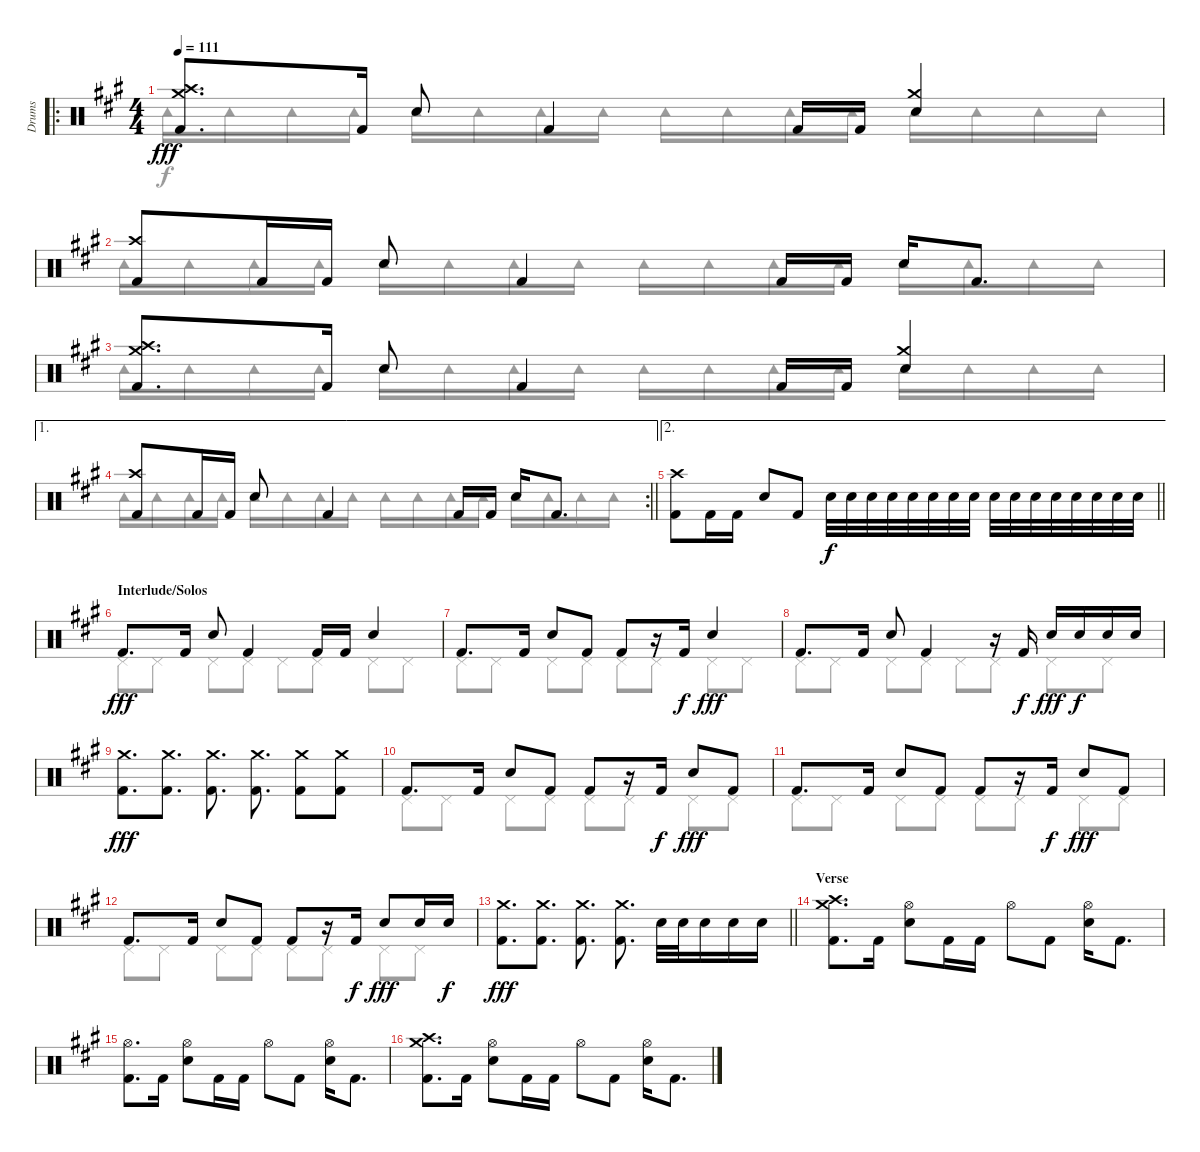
\track ("Drums" "Drums") {instrument percussion}
\staff {score}
\articulation defaults
\voice
\ro
\ts (4 4)
\tempo 111
\clef neutral
\ks a
("Crash medium (hit)" "Crash high (hit)" "Kick (hit) 2").8{d dy fff} "Kick (hit) 2".16 "Snare (hit) 2".8 "Kick (hit) 2".4 "Kick (hit) 2".16 "Kick (hit) 2".16 ("Crash medium (hit)" "Snare (hit) 2").4 |
("Crash high (hit)" "Kick (hit) 2").8 "Kick (hit) 2".16 "Kick (hit) 2".16 "Snare (hit) 2".8 "Kick (hit) 2".4 "Kick (hit) 2".16 "Kick (hit) 2".16 "Snare (hit) 2".16 "Kick (hit) 2".8{d} |
("Crash medium (hit)" "Crash high (hit)" "Kick (hit) 2").8{d} "Kick (hit) 2".16 "Snare (hit) 2".8 "Kick (hit) 2".4 "Kick (hit) 2".16 "Kick (hit) 2".16 ("Crash medium (hit)" "Snare (hit) 2").4 |
\ae 1
\rc 2
\barLineRight lightlight
("Crash high (hit)" "Kick (hit) 2").8 "Kick (hit) 2".16 "Kick (hit) 2".16 "Snare (hit) 2".8 "Kick (hit) 2".4 "Kick (hit) 2".16 "Kick (hit) 2".16 "Snare (hit) 2".16 "Kick (hit) 2".8{d} |
\ae 2
\barLineRight lightlight
("Crash high (hit)" "Kick (hit) 2").8 "Kick (hit) 2".16 "Kick (hit) 2".16 "Snare (hit) 2".8 "Kick (hit) 2".8 "Snare (hit) 2".32{dy f} "Snare (hit) 2".32 "Snare (hit) 2".32 "Snare (hit) 2".32 "Snare (hit) 2".32 "Snare (hit) 2".32 "Snare (hit) 2".32 "Snare (hit) 2".32 "Snare (hit) 2".32 "Snare (hit) 2".32 "Snare (hit) 2".32 "Snare (hit) 2".32 "Snare (hit) 2".32 "Snare (hit) 2".32 "Snare (hit) 2".32 "Snare (hit) 2".32 |
\section ("" "Interlude/Solos")
"Kick (hit) 2".8{d dy fff} "Kick (hit) 2".16 "Snare (hit) 2".8 "Kick (hit) 2".4 "Kick (hit) 2".16 "Kick (hit) 2".16 "Snare (hit) 2".4 |
"Kick (hit) 2".8{d} "Kick (hit) 2".16 "Snare (hit) 2".8 "Kick (hit) 2".8 "Kick (hit) 2".8 r.16 "Kick (hit) 2".16{dy f} "Snare (hit) 2".4{dy fff} |
"Kick (hit) 2".8{d} "Kick (hit) 2".16 "Snare (hit) 2".8 "Kick (hit) 2".4 r.16 "Kick (hit) 2".16{dy f} "Snare (hit) 2".16{dy fff} "Snare (hit) 2".16{dy f} "Snare (hit) 2".16 "Snare (hit) 2".16 |
("Crash medium (hit)" "Kick (hit) 2").8{d dy fff} ("Crash medium (hit)" "Kick (hit) 2").8{d} ("Crash medium (hit)" "Kick (hit) 2").8{d} ("Crash medium (hit)" "Kick (hit) 2").8{d} ("Crash medium (hit)" "Kick (hit) 2").8 ("Crash medium (hit)" "Kick (hit) 2").8 |
"Kick (hit) 2".8{d} "Kick (hit) 2".16 "Snare (hit) 2".8 "Kick (hit) 2".8 "Kick (hit) 2".8 r.16 "Kick (hit) 2".16{dy f} "Snare (hit) 2".8{dy fff} "Kick (hit) 2".8 |
"Kick (hit) 2".8{d} "Kick (hit) 2".16 "Snare (hit) 2".8 "Kick (hit) 2".8 "Kick (hit) 2".8 r.16 "Kick (hit) 2".16{dy f} "Snare (hit) 2".8{dy fff} "Kick (hit) 2".8 |
"Kick (hit) 2".8{d} "Kick (hit) 2".16 "Snare (hit) 2".8 "Kick (hit) 2".8 "Kick (hit) 2".8 r.16 "Kick (hit) 2".16{dy f} "Snare (hit) 2".8{dy fff} "Snare (hit) 2".16 "Snare (hit) 2".16{dy f} |
\barLineRight lightlight
("Crash medium (hit)" "Kick (hit) 2").8{d dy fff} ("Crash medium (hit)" "Kick (hit) 2").8{d} ("Crash medium (hit)" "Kick (hit) 2").8{d} ("Crash medium (hit)" "Kick (hit) 2").8{d} "Snare (hit) 2".32 "Snare (hit) 2".32 "Snare (hit) 2".16 "Snare (hit) 2".16 "Snare (hit) 2".16 |
\section ("" "Verse")
("Crash medium (hit)" "Crash high (hit)" "Kick (hit) 2").8{d} "Kick (hit) 2".16 ("Hi-Hat (open)" "Snare (hit) 2").8 "Kick (hit) 2".16 "Kick (hit) 2".16 "Hi-Hat (open)".8 "Kick (hit) 2".8 ("Hi-Hat (open)" "Snare (hit) 2").16 "Kick (hit) 2".8{d} |
("Hi-Hat (open)" "Kick (hit) 2").8{d} "Kick (hit) 2".16 ("Hi-Hat (open)" "Snare (hit) 2").8 "Kick (hit) 2".16 "Kick (hit) 2".16 "Hi-Hat (open)".8 "Kick (hit) 2".8 ("Hi-Hat (open)" "Snare (hit) 2").16 "Kick (hit) 2".8{d} |
("Crash medium (hit)" "Crash high (hit)" "Kick (hit) 2").8{d} "Kick (hit) 2".16 ("Hi-Hat (open)" "Snare (hit) 2").8 "Kick (hit) 2".16 "Kick (hit) 2".16 "Hi-Hat (open)".8 "Kick (hit) 2".8 ("Hi-Hat (open)" "Snare (hit) 2").16 "Kick (hit) 2".8{d}
\voice
\clef neutral
\ottava regular
\simile none
\ks a "Tambourine (hit)".16{dy f} "Tambourine (hit)".16 "Tambourine (hit)".16 "Tambourine (hit)".16 "Tambourine (hit)".16 "Tambourine (hit)".16 "Tambourine (hit)".16 "Tambourine (hit)".16 "Tambourine (hit)".16 "Tambourine (hit)".16 "Tambourine (hit)".16 "Tambourine (hit)".16 "Tambourine (hit)".16 "Tambourine (hit)".16 "Tambourine (hit)".16 "Tambourine (hit)".16
|
"Tambourine (hit)".16 "Tambourine (hit)".16 "Tambourine (hit)".16 "Tambourine (hit)".16 "Tambourine (hit)".16 "Tambourine (hit)".16 "Tambourine (hit)".16 "Tambourine (hit)".16 "Tambourine (hit)".16 "Tambourine (hit)".16 "Tambourine (hit)".16 "Tambourine (hit)".16 "Tambourine (hit)".16 "Tambourine (hit)".16 "Tambourine (hit)".16 "Tambourine (hit)".16 |
"Tambourine (hit)".16 "Tambourine (hit)".16 "Tambourine (hit)".16 "Tambourine (hit)".16 "Tambourine (hit)".16 "Tambourine (hit)".16 "Tambourine (hit)".16 "Tambourine (hit)".16 "Tambourine (hit)".16 "Tambourine (hit)".16 "Tambourine (hit)".16 "Tambourine (hit)".16 "Tambourine (hit)".16 "Tambourine (hit)".16 "Tambourine (hit)".16 "Tambourine (hit)".16 |
\barLineRight lightlight "Tambourine (hit)".16 "Tambourine (hit)".16 "Tambourine (hit)".16 "Tambourine (hit)".16 "Tambourine (hit)".16 "Tambourine (hit)".16 "Tambourine (hit)".16 "Tambourine (hit)".16 "Tambourine (hit)".16 "Tambourine (hit)".16 "Tambourine (hit)".16 "Tambourine (hit)".16 "Tambourine (hit)".16 "Tambourine (hit)".16 "Tambourine (hit)".16 "Tambourine (hit)".16
|
\barLineRight lightlight
|
"Pedal Hi-Hat (hit)".8 "Pedal Hi-Hat (hit)".8 "Pedal Hi-Hat (hit)".8 "Pedal Hi-Hat (hit)".8 "Pedal Hi-Hat (hit)".8 "Pedal Hi-Hat (hit)".8 "Pedal Hi-Hat (hit)".8 "Pedal Hi-Hat (hit)".8 |
"Pedal Hi-Hat (hit)".8 "Pedal Hi-Hat (hit)".8 "Pedal Hi-Hat (hit)".8 "Pedal Hi-Hat (hit)".8 "Pedal Hi-Hat (hit)".8 "Pedal Hi-Hat (hit)".8 "Pedal Hi-Hat (hit)".8 "Pedal Hi-Hat (hit)".8 |
"Pedal Hi-Hat (hit)".8 "Pedal Hi-Hat (hit)".8 "Pedal Hi-Hat (hit)".8 "Pedal Hi-Hat (hit)".8 "Pedal Hi-Hat (hit)".8 "Pedal Hi-Hat (hit)".8 "Pedal Hi-Hat (hit)".8 "Pedal Hi-Hat (hit)".8 |
|
"Pedal Hi-Hat (hit)".8 "Pedal Hi-Hat (hit)".8 "Pedal Hi-Hat (hit)".8 "Pedal Hi-Hat (hit)".8 "Pedal Hi-Hat (hit)".8 "Pedal Hi-Hat (hit)".8 "Pedal Hi-Hat (hit)".8 "Pedal Hi-Hat (hit)".8 |
"Pedal Hi-Hat (hit)".8 "Pedal Hi-Hat (hit)".8 "Pedal Hi-Hat (hit)".8 "Pedal Hi-Hat (hit)".8 "Pedal Hi-Hat (hit)".8 "Pedal Hi-Hat (hit)".8 "Pedal Hi-Hat (hit)".8 "Pedal Hi-Hat (hit)".8 |
"Pedal Hi-Hat (hit)".8 "Pedal Hi-Hat (hit)".8 "Pedal Hi-Hat (hit)".8 "Pedal Hi-Hat (hit)".8 "Pedal Hi-Hat (hit)".8 "Pedal Hi-Hat (hit)".8 "Pedal Hi-Hat (hit)".8 "Pedal Hi-Hat (hit)".8 |
\barLineRight lightlight
|
|
|
